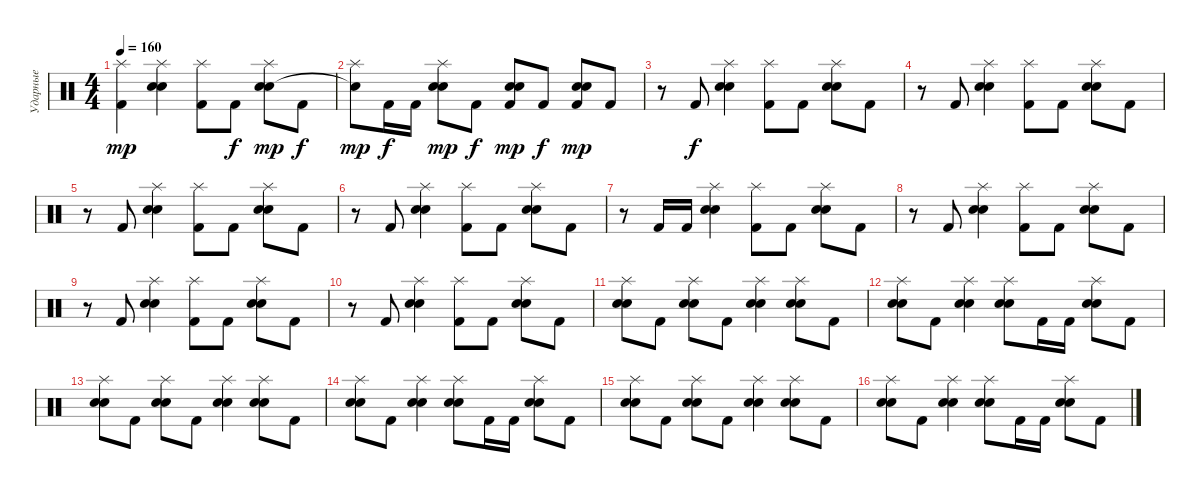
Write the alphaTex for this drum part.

\track ("Ударные" "Ударные") {instrument percussion}
\staff {score}
\articulation defaults
\ts (4 4)
\tempo 160
\clef neutral
\ks c
("Splash (hit)" "Kick (hit) 2").4{dy mp} ("Splash (hit)" "Electric Snare (hit)" "Snare (hit) 2").4 ("Splash (hit)" "Kick (hit) 2").8 "Kick (hit) 2".8{dy f} ("Splash (hit)" "Electric Snare (hit)" "Snare (hit) 2").8{dy mp} "Kick (hit) 2".8{dy f} |
("Splash (hit)" "Snare (hit)"{t}).8{dy mp} "Kick (hit) 2".16{dy f} "Kick (hit) 2".16 ("Splash (hit)" "Electric Snare (hit)" "Snare (hit) 2").8{dy mp} "Kick (hit) 2".8{dy f} ("Electric Snare (hit)" "Snare (hit) 2" "Kick (hit) 2").8{dy mp} "Kick (hit) 2".8{dy f} ("Electric Snare (hit)" "Snare (hit) 2" "Kick (hit) 2").8{dy mp} "Kick (hit) 2".8 |
r.8 "Kick (hit) 2".8{dy f} ("Splash (hit)" "Electric Snare (hit)" "Snare (hit) 2").4 ("Splash (hit)" "Kick (hit) 2").8 "Kick (hit) 2".8 ("Splash (hit)" "Electric Snare (hit)" "Snare (hit) 2").8 "Kick (hit) 2".8 |
r.8 "Kick (hit) 2".8 ("Splash (hit)" "Electric Snare (hit)" "Snare (hit) 2").4 ("Splash (hit)" "Kick (hit) 2").8 "Kick (hit) 2".8 ("Splash (hit)" "Electric Snare (hit)" "Snare (hit) 2").8 "Kick (hit) 2".8 |
r.8 "Kick (hit) 2".8 ("Splash (hit)" "Electric Snare (hit)" "Snare (hit) 2").4 ("Splash (hit)" "Kick (hit) 2").8 "Kick (hit) 2".8 ("Splash (hit)" "Electric Snare (hit)" "Snare (hit) 2").8 "Kick (hit) 2".8 |
r.8 "Kick (hit) 2".8 ("Splash (hit)" "Electric Snare (hit)" "Snare (hit) 2").4 ("Splash (hit)" "Kick (hit) 2").8 "Kick (hit) 2".8 ("Splash (hit)" "Electric Snare (hit)" "Snare (hit) 2").8 "Kick (hit) 2".8 |
r.8 "Kick (hit) 2".16 "Kick (hit) 2".16 ("Splash (hit)" "Electric Snare (hit)" "Snare (hit) 2").4 ("Splash (hit)" "Kick (hit) 2").8 "Kick (hit) 2".8 ("Splash (hit)" "Electric Snare (hit)" "Snare (hit) 2").8 "Kick (hit) 2".8 |
r.8 "Kick (hit) 2".8 ("Splash (hit)" "Electric Snare (hit)" "Snare (hit) 2").4 ("Splash (hit)" "Kick (hit) 2").8 "Kick (hit) 2".8 ("Splash (hit)" "Electric Snare (hit)" "Snare (hit) 2").8 "Kick (hit) 2".8 |
r.8 "Kick (hit) 2".8 ("Splash (hit)" "Electric Snare (hit)" "Snare (hit) 2").4 ("Splash (hit)" "Kick (hit) 2").8 "Kick (hit) 2".8 ("Splash (hit)" "Electric Snare (hit)" "Snare (hit) 2").8 "Kick (hit) 2".8 |
r.8 "Kick (hit) 2".8 ("Splash (hit)" "Electric Snare (hit)" "Snare (hit) 2").4 ("Splash (hit)" "Kick (hit) 2").8 "Kick (hit) 2".8 ("Splash (hit)" "Electric Snare (hit)" "Snare (hit) 2").8 "Kick (hit) 2".8 |
("Splash (hit)" "Electric Snare (hit)" "Snare (hit) 2").8 "Kick (hit) 2".8 ("Splash (hit)" "Electric Snare (hit)" "Snare (hit) 2").8 "Kick (hit) 2".8 ("Splash (hit)" "Electric Snare (hit)" "Snare (hit) 2").4 ("Splash (hit)" "Electric Snare (hit)" "Snare (hit) 2").8 "Kick (hit) 2".8 |
("Splash (hit)" "Electric Snare (hit)" "Snare (hit) 2").8 "Kick (hit) 2".8 ("Splash (hit)" "Electric Snare (hit)" "Snare (hit) 2").4 ("Splash (hit)" "Electric Snare (hit)" "Snare (hit) 2").8 "Kick (hit) 2".16 "Kick (hit) 2".16 ("Splash (hit)" "Electric Snare (hit)" "Snare (hit) 2").8 "Kick (hit) 2".8 |
("Splash (hit)" "Electric Snare (hit)" "Snare (hit) 2").8 "Kick (hit) 2".8 ("Splash (hit)" "Electric Snare (hit)" "Snare (hit) 2").8 "Kick (hit) 2".8 ("Splash (hit)" "Electric Snare (hit)" "Snare (hit) 2").4 ("Splash (hit)" "Electric Snare (hit)" "Snare (hit) 2").8 "Kick (hit) 2".8 |
("Splash (hit)" "Electric Snare (hit)" "Snare (hit) 2").8 "Kick (hit) 2".8 ("Splash (hit)" "Electric Snare (hit)" "Snare (hit) 2").4 ("Splash (hit)" "Electric Snare (hit)" "Snare (hit) 2").8 "Kick (hit) 2".16 "Kick (hit) 2".16 ("Splash (hit)" "Electric Snare (hit)" "Snare (hit) 2").8 "Kick (hit) 2".8 |
("Splash (hit)" "Electric Snare (hit)" "Snare (hit) 2").8 "Kick (hit) 2".8 ("Splash (hit)" "Electric Snare (hit)" "Snare (hit) 2").8 "Kick (hit) 2".8 ("Splash (hit)" "Electric Snare (hit)" "Snare (hit) 2").4 ("Splash (hit)" "Electric Snare (hit)" "Snare (hit) 2").8 "Kick (hit) 2".8 |
("Splash (hit)" "Electric Snare (hit)" "Snare (hit) 2").8 "Kick (hit) 2".8 ("Splash (hit)" "Electric Snare (hit)" "Snare (hit) 2").4 ("Splash (hit)" "Electric Snare (hit)" "Snare (hit) 2").8 "Kick (hit) 2".16 "Kick (hit) 2".16 ("Splash (hit)" "Electric Snare (hit)" "Snare (hit) 2").8 "Kick (hit) 2".8
